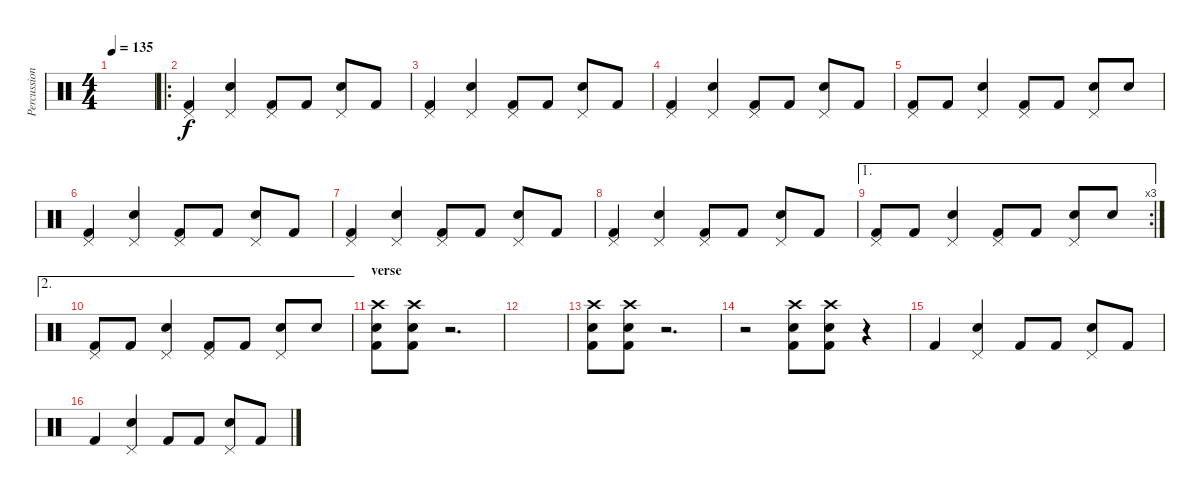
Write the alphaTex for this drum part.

\track ("Percussion" "Percussion") {instrument percussion}
\staff {score}
\articulation defaults
\ts (4 4)
\tempo 135
\clef neutral
\ks c
|
\ro
("Pedal Hi-Hat (hit)" "Kick (hit) 2").4 ("Pedal Hi-Hat (hit)" "Electric Snare (hit)").4 ("Pedal Hi-Hat (hit)" "Kick (hit) 2").8 "Kick (hit) 2".8 ("Pedal Hi-Hat (hit)" "Electric Snare (hit)").8 "Kick (hit) 2".8 |
("Pedal Hi-Hat (hit)" "Kick (hit) 2").4 ("Pedal Hi-Hat (hit)" "Electric Snare (hit)").4 ("Pedal Hi-Hat (hit)" "Kick (hit) 2").8 "Kick (hit) 2".8 ("Pedal Hi-Hat (hit)" "Electric Snare (hit)").8 "Kick (hit) 2".8 |
("Pedal Hi-Hat (hit)" "Kick (hit) 2").4 ("Pedal Hi-Hat (hit)" "Electric Snare (hit)").4 ("Pedal Hi-Hat (hit)" "Kick (hit) 2").8 "Kick (hit) 2".8 ("Pedal Hi-Hat (hit)" "Electric Snare (hit)").8 "Kick (hit) 2".8 |
("Pedal Hi-Hat (hit)" "Kick (hit) 2").8 "Kick (hit) 2".8 ("Pedal Hi-Hat (hit)" "Electric Snare (hit)").4 ("Pedal Hi-Hat (hit)" "Kick (hit) 2").8 "Kick (hit) 2".8 ("Pedal Hi-Hat (hit)" "Electric Snare (hit)").8 "Electric Snare (hit)".8 |
("Pedal Hi-Hat (hit)" "Kick (hit) 2").4 ("Pedal Hi-Hat (hit)" "Electric Snare (hit)").4 ("Pedal Hi-Hat (hit)" "Kick (hit) 2").8 "Kick (hit) 2".8 ("Pedal Hi-Hat (hit)" "Electric Snare (hit)").8 "Kick (hit) 2".8 |
("Pedal Hi-Hat (hit)" "Kick (hit) 2").4 ("Pedal Hi-Hat (hit)" "Electric Snare (hit)").4 ("Pedal Hi-Hat (hit)" "Kick (hit) 2").8 "Kick (hit) 2".8 ("Pedal Hi-Hat (hit)" "Electric Snare (hit)").8 "Kick (hit) 2".8 |
("Pedal Hi-Hat (hit)" "Kick (hit) 2").4 ("Pedal Hi-Hat (hit)" "Electric Snare (hit)").4 ("Pedal Hi-Hat (hit)" "Kick (hit) 2").8 "Kick (hit) 2".8 ("Pedal Hi-Hat (hit)" "Electric Snare (hit)").8 "Kick (hit) 2".8 |
\ae 1
\rc 3
("Pedal Hi-Hat (hit)" "Kick (hit) 2").8 "Kick (hit) 2".8 ("Pedal Hi-Hat (hit)" "Electric Snare (hit)").4 ("Pedal Hi-Hat (hit)" "Kick (hit) 2").8 "Kick (hit) 2".8 ("Pedal Hi-Hat (hit)" "Electric Snare (hit)").8 "Electric Snare (hit)".8 |
\ae 2
("Pedal Hi-Hat (hit)" "Kick (hit) 2").8 "Kick (hit) 2".8 ("Pedal Hi-Hat (hit)" "Electric Snare (hit)").4 ("Pedal Hi-Hat (hit)" "Kick (hit) 2").8 "Kick (hit) 2".8 ("Pedal Hi-Hat (hit)" "Electric Snare (hit)").8 "Electric Snare (hit)".8 |
\section ("" "verse")
("Crash high (hit)" "Electric Snare (hit)" "Kick (hit) 2").8 ("Crash high (hit)" "Electric Snare (hit)" "Kick (hit) 2").8 r.2{d} |
|
("Crash high (hit)" "Electric Snare (hit)" "Kick (hit) 2").8 ("Crash high (hit)" "Electric Snare (hit)" "Kick (hit) 2").8 r.2{d} |
r.2 ("Crash high (hit)" "Electric Snare (hit)" "Kick (hit) 2").8 ("Crash high (hit)" "Electric Snare (hit)" "Kick (hit) 2").8 r.4 |
"Kick (hit) 2".4 ("Pedal Hi-Hat (hit)" "Electric Snare (hit)").4 "Kick (hit) 2".8 "Kick (hit) 2".8 ("Pedal Hi-Hat (hit)" "Electric Snare (hit)").8 "Kick (hit) 2".8 |
"Kick (hit) 2".4 ("Pedal Hi-Hat (hit)" "Electric Snare (hit)").4 "Kick (hit) 2".8 "Kick (hit) 2".8 ("Pedal Hi-Hat (hit)" "Electric Snare (hit)").8 "Kick (hit) 2".8
